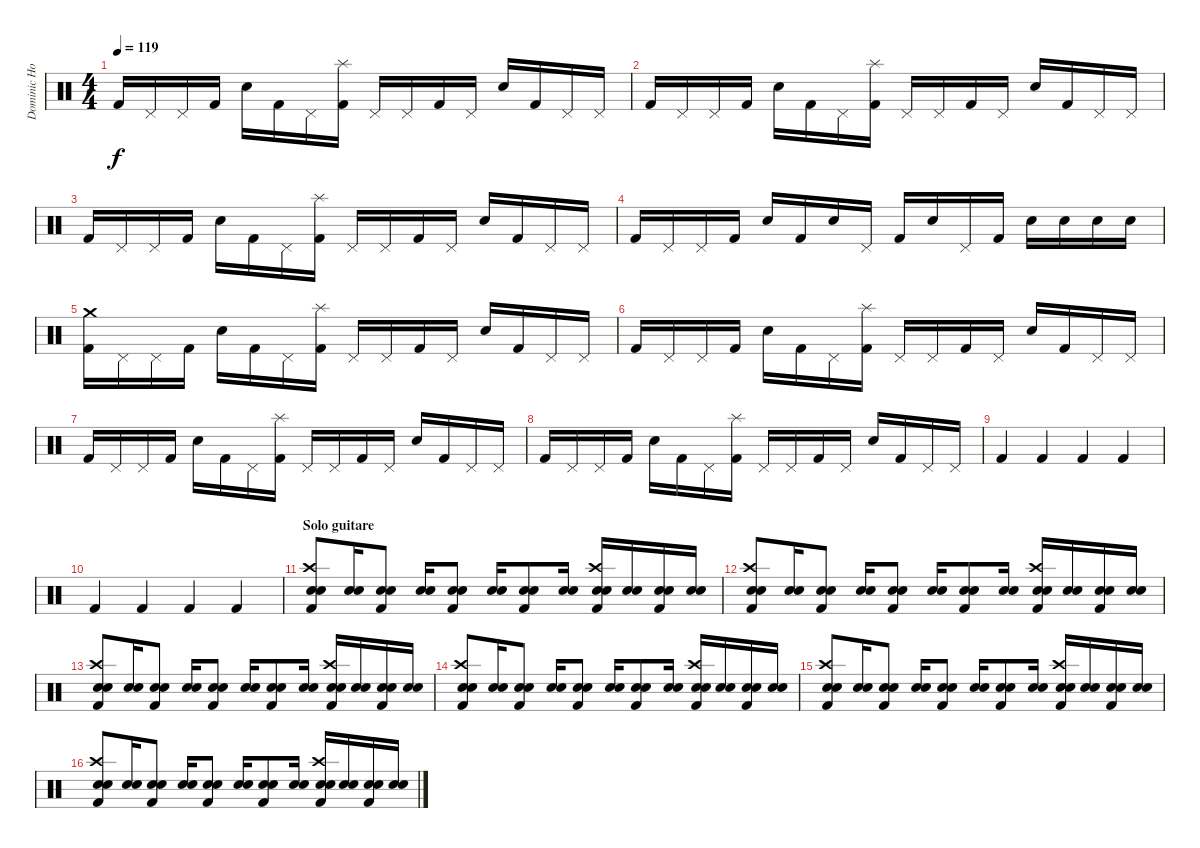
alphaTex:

\track ("Dominic Howard" "Dominic Ho") {instrument percussion}
\staff {score}
\articulation defaults
\ts (4 4)
\tempo 119
\clef neutral
\ks c "Kick (hit) 2".16{dy f} "Pedal Hi-Hat (hit)".16 "Pedal Hi-Hat (hit)".16 "Kick (hit) 2".16 "Electric Snare (hit)".16 "Kick (hit) 2".16 "Pedal Hi-Hat (hit)".16
("Splash (hit)" "Kick (hit) 2").16 "Pedal Hi-Hat (hit)".16 "Pedal Hi-Hat (hit)".16 "Kick (hit) 2".16 "Pedal Hi-Hat (hit)".16 "Electric Snare (hit)".16 "Kick (hit) 2".16 "Pedal Hi-Hat (hit)".16 "Pedal Hi-Hat (hit)".16 |
"Kick (hit) 2".16 "Pedal Hi-Hat (hit)".16 "Pedal Hi-Hat (hit)".16 "Kick (hit) 2".16 "Electric Snare (hit)".16 "Kick (hit) 2".16 "Pedal Hi-Hat (hit)".16 ("Splash (hit)" "Kick (hit) 2").16 "Pedal Hi-Hat (hit)".16 "Pedal Hi-Hat (hit)".16 "Kick (hit) 2".16 "Pedal Hi-Hat (hit)".16 "Electric Snare (hit)".16 "Kick (hit) 2".16 "Pedal Hi-Hat (hit)".16 "Pedal Hi-Hat (hit)".16 |
"Kick (hit) 2".16 "Pedal Hi-Hat (hit)".16 "Pedal Hi-Hat (hit)".16 "Kick (hit) 2".16 "Electric Snare (hit)".16 "Kick (hit) 2".16 "Pedal Hi-Hat (hit)".16 ("Splash (hit)" "Kick (hit) 2").16 "Pedal Hi-Hat (hit)".16 "Pedal Hi-Hat (hit)".16 "Kick (hit) 2".16 "Pedal Hi-Hat (hit)".16 "Electric Snare (hit)".16 "Kick (hit) 2".16 "Pedal Hi-Hat (hit)".16 "Pedal Hi-Hat (hit)".16 |
"Kick (hit) 2".16 "Pedal Hi-Hat (hit)".16 "Pedal Hi-Hat (hit)".16 "Kick (hit) 2".16 "Electric Snare (hit)".16 "Kick (hit) 2".16 "Electric Snare (hit)".16 "Pedal Hi-Hat (hit)".16 "Kick (hit) 2".16 "Electric Snare (hit)".16 "Pedal Hi-Hat (hit)".16 "Kick (hit) 2".16 "Electric Snare (hit)".16 "Electric Snare (hit)".16 "Electric Snare (hit)".16 "Electric Snare (hit)".16 |
("Crash medium (hit)" "Kick (hit) 2").16 "Pedal Hi-Hat (hit)".16 "Pedal Hi-Hat (hit)".16 "Kick (hit) 2".16 "Electric Snare (hit)".16 "Kick (hit) 2".16 "Pedal Hi-Hat (hit)".16 ("Splash (hit)" "Kick (hit) 2").16 "Pedal Hi-Hat (hit)".16 "Pedal Hi-Hat (hit)".16 "Kick (hit) 2".16 "Pedal Hi-Hat (hit)".16 "Electric Snare (hit)".16 "Kick (hit) 2".16 "Pedal Hi-Hat (hit)".16 "Pedal Hi-Hat (hit)".16 |
"Kick (hit) 2".16 "Pedal Hi-Hat (hit)".16 "Pedal Hi-Hat (hit)".16 "Kick (hit) 2".16 "Electric Snare (hit)".16 "Kick (hit) 2".16 "Pedal Hi-Hat (hit)".16 ("Splash (hit)" "Kick (hit) 2").16 "Pedal Hi-Hat (hit)".16 "Pedal Hi-Hat (hit)".16 "Kick (hit) 2".16 "Pedal Hi-Hat (hit)".16 "Electric Snare (hit)".16 "Kick (hit) 2".16 "Pedal Hi-Hat (hit)".16 "Pedal Hi-Hat (hit)".16 |
"Kick (hit) 2".16 "Pedal Hi-Hat (hit)".16 "Pedal Hi-Hat (hit)".16 "Kick (hit) 2".16 "Electric Snare (hit)".16 "Kick (hit) 2".16 "Pedal Hi-Hat (hit)".16 ("Splash (hit)" "Kick (hit) 2").16 "Pedal Hi-Hat (hit)".16 "Pedal Hi-Hat (hit)".16 "Kick (hit) 2".16 "Pedal Hi-Hat (hit)".16 "Electric Snare (hit)".16 "Kick (hit) 2".16 "Pedal Hi-Hat (hit)".16 "Pedal Hi-Hat (hit)".16 |
"Kick (hit) 2".16 "Pedal Hi-Hat (hit)".16 "Pedal Hi-Hat (hit)".16 "Kick (hit) 2".16 "Electric Snare (hit)".16 "Kick (hit) 2".16 "Pedal Hi-Hat (hit)".16 ("Splash (hit)" "Kick (hit) 2").16 "Pedal Hi-Hat (hit)".16 "Pedal Hi-Hat (hit)".16 "Kick (hit) 2".16 "Pedal Hi-Hat (hit)".16 "Electric Snare (hit)".16 "Kick (hit) 2".16 "Pedal Hi-Hat (hit)".16 "Pedal Hi-Hat (hit)".16 |
"Kick (hit) 2".4 "Kick (hit) 2".4 "Kick (hit) 2".4 "Kick (hit) 2".4 |
"Kick (hit) 2".4 "Kick (hit) 2".4 "Kick (hit) 2".4 "Kick (hit) 2".4 |
\section ("" "Solo guitare")
("Crash high (hit)" "Electric Snare (hit)" "Snare (hit) 2" "Kick (hit) 2").8 ("Electric Snare (hit)" "Snare (hit) 2").16 ("Electric Snare (hit)" "Snare (hit) 2" "Kick (hit) 2").8 ("Electric Snare (hit)" "Snare (hit) 2").16 ("Electric Snare (hit)" "Snare (hit) 2" "Kick (hit) 2").8 ("Electric Snare (hit)" "Snare (hit) 2").16 ("Electric Snare (hit)" "Snare (hit) 2" "Kick (hit) 2").8 ("Electric Snare (hit)" "Snare (hit) 2").16 ("Crash high (hit)" "Electric Snare (hit)" "Snare (hit) 2" "Kick (hit) 2").16 ("Electric Snare (hit)" "Snare (hit) 2").16 ("Electric Snare (hit)" "Snare (hit) 2" "Kick (hit) 2").16 ("Electric Snare (hit)" "Snare (hit) 2").16 |
("Crash high (hit)" "Electric Snare (hit)" "Snare (hit) 2" "Kick (hit) 2").8 ("Electric Snare (hit)" "Snare (hit) 2").16 ("Electric Snare (hit)" "Snare (hit) 2" "Kick (hit) 2").8 ("Electric Snare (hit)" "Snare (hit) 2").16 ("Electric Snare (hit)" "Snare (hit) 2" "Kick (hit) 2").8 ("Electric Snare (hit)" "Snare (hit) 2").16 ("Electric Snare (hit)" "Snare (hit) 2" "Kick (hit) 2").8 ("Electric Snare (hit)" "Snare (hit) 2").16 ("Crash high (hit)" "Electric Snare (hit)" "Snare (hit) 2" "Kick (hit) 2").16 ("Electric Snare (hit)" "Snare (hit) 2").16 ("Electric Snare (hit)" "Snare (hit) 2" "Kick (hit) 2").16 ("Electric Snare (hit)" "Snare (hit) 2").16 |
("Crash high (hit)" "Electric Snare (hit)" "Snare (hit) 2" "Kick (hit) 2").8 ("Electric Snare (hit)" "Snare (hit) 2").16 ("Electric Snare (hit)" "Snare (hit) 2" "Kick (hit) 2").8 ("Electric Snare (hit)" "Snare (hit) 2").16 ("Electric Snare (hit)" "Snare (hit) 2" "Kick (hit) 2").8 ("Electric Snare (hit)" "Snare (hit) 2").16 ("Electric Snare (hit)" "Snare (hit) 2" "Kick (hit) 2").8 ("Electric Snare (hit)" "Snare (hit) 2").16 ("Crash high (hit)" "Electric Snare (hit)" "Snare (hit) 2" "Kick (hit) 2").16 ("Electric Snare (hit)" "Snare (hit) 2").16 ("Electric Snare (hit)" "Snare (hit) 2" "Kick (hit) 2").16 ("Electric Snare (hit)" "Snare (hit) 2").16 |
("Crash high (hit)" "Electric Snare (hit)" "Snare (hit) 2" "Kick (hit) 2").8 ("Electric Snare (hit)" "Snare (hit) 2").16 ("Electric Snare (hit)" "Snare (hit) 2" "Kick (hit) 2").8 ("Electric Snare (hit)" "Snare (hit) 2").16 ("Electric Snare (hit)" "Snare (hit) 2" "Kick (hit) 2").8 ("Electric Snare (hit)" "Snare (hit) 2").16 ("Electric Snare (hit)" "Snare (hit) 2" "Kick (hit) 2").8 ("Electric Snare (hit)" "Snare (hit) 2").16 ("Crash high (hit)" "Electric Snare (hit)" "Snare (hit) 2" "Kick (hit) 2").16 ("Electric Snare (hit)" "Snare (hit) 2").16 ("Electric Snare (hit)" "Snare (hit) 2" "Kick (hit) 2").16 ("Electric Snare (hit)" "Snare (hit) 2").16 |
("Crash high (hit)" "Electric Snare (hit)" "Snare (hit) 2" "Kick (hit) 2").8 ("Electric Snare (hit)" "Snare (hit) 2").16 ("Electric Snare (hit)" "Snare (hit) 2" "Kick (hit) 2").8 ("Electric Snare (hit)" "Snare (hit) 2").16 ("Electric Snare (hit)" "Snare (hit) 2" "Kick (hit) 2").8 ("Electric Snare (hit)" "Snare (hit) 2").16 ("Electric Snare (hit)" "Snare (hit) 2" "Kick (hit) 2").8 ("Electric Snare (hit)" "Snare (hit) 2").16 ("Crash high (hit)" "Electric Snare (hit)" "Snare (hit) 2" "Kick (hit) 2").16 ("Electric Snare (hit)" "Snare (hit) 2").16 ("Electric Snare (hit)" "Snare (hit) 2" "Kick (hit) 2").16 ("Electric Snare (hit)" "Snare (hit) 2").16 |
("Crash high (hit)" "Electric Snare (hit)" "Snare (hit) 2" "Kick (hit) 2").8 ("Electric Snare (hit)" "Snare (hit) 2").16 ("Electric Snare (hit)" "Snare (hit) 2" "Kick (hit) 2").8 ("Electric Snare (hit)" "Snare (hit) 2").16 ("Electric Snare (hit)" "Snare (hit) 2" "Kick (hit) 2").8 ("Electric Snare (hit)" "Snare (hit) 2").16 ("Electric Snare (hit)" "Snare (hit) 2" "Kick (hit) 2").8 ("Electric Snare (hit)" "Snare (hit) 2").16 ("Crash high (hit)" "Electric Snare (hit)" "Snare (hit) 2" "Kick (hit) 2").16 ("Electric Snare (hit)" "Snare (hit) 2").16 ("Electric Snare (hit)" "Snare (hit) 2" "Kick (hit) 2").16 ("Electric Snare (hit)" "Snare (hit) 2").16
